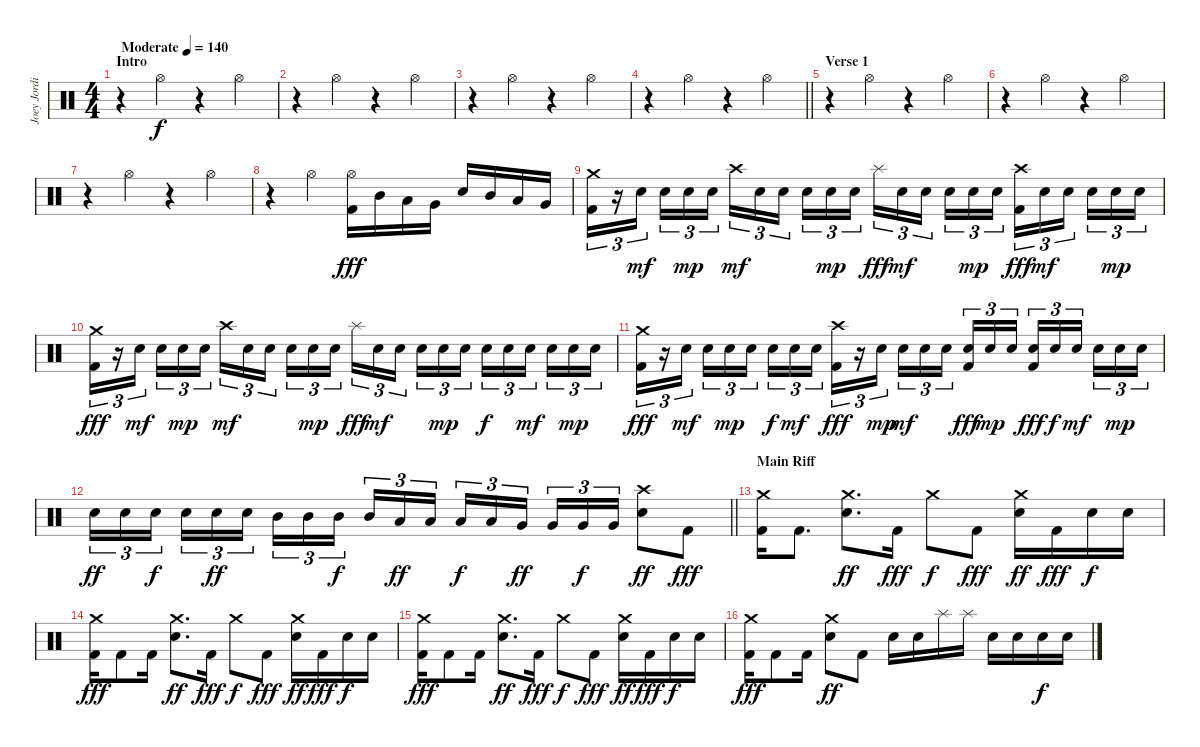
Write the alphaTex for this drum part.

\track ("Joey Jordison" "Joey Jordi") {instrument percussion}
\staff {score}
\articulation defaults
\ts (4 4)
\section ("" "Intro")
\tempo (140 "Moderate")
\clef neutral
\ks c
r.4{dy f} "Hi-Hat (open)".4 r.4 "Hi-Hat (open)".4 |
r.4 "Hi-Hat (open)".4 r.4 "Hi-Hat (open)".4 |
r.4 "Hi-Hat (open)".4 r.4 "Hi-Hat (open)".4 |
\barLineRight lightlight
r.4 "Hi-Hat (open)".4 r.4 "Hi-Hat (open)".4 |
\section ("" "Verse 1")
r.4 "Hi-Hat (open)".4 r.4 "Hi-Hat (open)".4 |
r.4 "Hi-Hat (open)".4 r.4 "Hi-Hat (open)".4 |
r.4 "Hi-Hat (open)".4 r.4 "Hi-Hat (open)".4 |
r.4 "Hi-Hat (open)".4 ("Hi-Hat (open)" "Kick (hit) 2").16{dy fff} "Mid Tom (hit)".16 "Low Tom (hit)".16 "Very Low Tom (hit)".16 "Electric Snare (hit)".16 "Mid Tom (hit)".16 "Low Tom (hit)".16 "Very Low Tom (hit)".16 |
("Crash medium (hit)" "Kick (hit) 2").16{tu (3 2)} r.16{tu (3 2)} "Electric Snare (hit)".16{tu (3 2) dy mf beam splitsecondary} "Electric Snare (hit)".16{tu (3 2)} "Electric Snare (hit)".16{tu (3 2) dy mp} "Electric Snare (hit)".16{tu (3 2)} "Crash high (hit)".16{tu (3 2) dy mf} "Electric Snare (hit)".16{tu (3 2)} "Electric Snare (hit)".16{tu (3 2) beam splitsecondary} "Electric Snare (hit)".16{tu (3 2)} "Electric Snare (hit)".16{tu (3 2) dy mp} "Electric Snare (hit)".16{tu (3 2)} "Splash (hit)".16{tu (3 2) dy fff} "Electric Snare (hit)".16{tu (3 2) dy mf} "Electric Snare (hit)".16{tu (3 2) beam splitsecondary} "Electric Snare (hit)".16{tu (3 2)} "Electric Snare (hit)".16{tu (3 2) dy mp} "Electric Snare (hit)".16{tu (3 2)} ("Crash high (hit)" "Kick (hit) 2").16{tu (3 2) dy fff} "Electric Snare (hit)".16{tu (3 2) dy mf} "Electric Snare (hit)".16{tu (3 2) beam splitsecondary} "Electric Snare (hit)".16{tu (3 2)} "Electric Snare (hit)".16{tu (3 2) dy mp} "Electric Snare (hit)".16{tu (3 2)} |
("Crash medium (hit)" "Kick (hit) 2").16{tu (3 2) dy fff} r.16{tu (3 2)} "Electric Snare (hit)".16{tu (3 2) dy mf beam splitsecondary} "Electric Snare (hit)".16{tu (3 2)} "Electric Snare (hit)".16{tu (3 2) dy mp} "Electric Snare (hit)".16{tu (3 2)} "Crash high (hit)".16{tu (3 2) dy mf} "Electric Snare (hit)".16{tu (3 2)} "Electric Snare (hit)".16{tu (3 2) beam splitsecondary} "Electric Snare (hit)".16{tu (3 2)} "Electric Snare (hit)".16{tu (3 2) dy mp} "Electric Snare (hit)".16{tu (3 2)} "Splash (hit)".16{tu (3 2) dy fff} "Electric Snare (hit)".16{tu (3 2) dy mf} "Electric Snare (hit)".16{tu (3 2) beam splitsecondary} "Electric Snare (hit)".16{tu (3 2)} "Electric Snare (hit)".16{tu (3 2) dy mp} "Electric Snare (hit)".16{tu (3 2)} "Electric Snare (hit)".16{tu (3 2) dy f} "Electric Snare (hit)".16{tu (3 2)} "Electric Snare (hit)".16{tu (3 2) dy mf beam splitsecondary} "Electric Snare (hit)".16{tu (3 2)} "Electric Snare (hit)".16{tu (3 2) dy mp} "Electric Snare (hit)".16{tu (3 2)} |
("Crash medium (hit)" "Kick (hit) 2").16{tu (3 2) dy fff} r.16{tu (3 2)} "Electric Snare (hit)".16{tu (3 2) dy mf beam splitsecondary} "Electric Snare (hit)".16{tu (3 2)} "Electric Snare (hit)".16{tu (3 2) dy mp} "Electric Snare (hit)".16{tu (3 2)} "Electric Snare (hit)".16{tu (3 2) dy f} "Electric Snare (hit)".16{tu (3 2) dy mf} "Electric Snare (hit)".16{tu (3 2) beam splitsecondary} ("Crash high (hit)" "Kick (hit) 2").16{tu (3 2) dy fff} r.16{tu (3 2)} "Electric Snare (hit)".16{tu (3 2) dy mp} "Electric Snare (hit)".16{tu (3 2) dy mf} "Electric Snare (hit)".16{tu (3 2)} "Electric Snare (hit)".16{tu (3 2) beam splitsecondary} ("Electric Snare (hit)" "Kick (hit) 2").16{tu (3 2) dy fff} "Electric Snare (hit)".16{tu (3 2) dy mp} "Electric Snare (hit)".16{tu (3 2)} ("Electric Snare (hit)" "Kick (hit) 2").16{tu (3 2) dy fff} "Electric Snare (hit)".16{tu (3 2) dy f} "Electric Snare (hit)".16{tu (3 2) dy mf beam splitsecondary} "Electric Snare (hit)".16{tu (3 2)} "Electric Snare (hit)".16{tu (3 2) dy mp} "Electric Snare (hit)".16{tu (3 2)} |
\barLineRight lightlight "Electric Snare (hit)".16{tu (3 2) dy ff} "Electric Snare (hit)".16{tu (3 2)} "Electric Snare (hit)".16{tu (3 2) dy f beam splitsecondary} "Electric Snare (hit)".16{tu (3 2)} "Electric Snare (hit)".16{tu (3 2) dy ff} "Electric Snare (hit)".16{tu (3 2)} "Mid Tom (hit)".16{tu (3 2)} "Mid Tom (hit)".16{tu (3 2)} "Mid Tom (hit)".16{tu (3 2) dy f beam splitsecondary} "Mid Tom (hit)".16{tu (3 2)} "Low Tom (hit)".16{tu (3 2) dy ff} "Low Tom (hit)".16{tu (3 2)} "Low Tom (hit)".16{tu (3 2) dy f} "Low Tom (hit)".16{tu (3 2)} "Very Low Tom (hit)".16{tu (3 2) dy ff beam splitsecondary} "Very Low Tom (hit)".16{tu (3 2)} "Very Low Tom (hit)".16{tu (3 2) dy f} "Very Low Tom (hit)".16{tu (3 2)}
("Crash high (hit)" "Electric Snare (hit)").8{dy ff} "Kick (hit) 2".8{dy fff} |
\section ("" "Main Riff")
("Crash medium (hit)" "Kick (hit) 2").16 "Kick (hit) 2".8{d} ("Crash medium (hit)" "Electric Snare (hit)").8{d dy ff} "Kick (hit) 2".16{dy fff} "Crash medium (hit)".8{dy f} "Kick (hit) 2".8{dy fff} ("Crash medium (hit)" "Electric Snare (hit)").16{dy ff} "Kick (hit) 2".16{dy fff} "Electric Snare (hit)".16{dy f} "Electric Snare (hit)".16 |
("Crash medium (hit)" "Kick (hit) 2").16{dy fff} "Kick (hit) 2".8 "Kick (hit) 2".16 ("Crash medium (hit)" "Electric Snare (hit)").8{d dy ff} "Kick (hit) 2".16{dy fff} "Crash medium (hit)".8{dy f} "Kick (hit) 2".8{dy fff} ("Crash medium (hit)" "Electric Snare (hit)").16{dy ff} "Kick (hit) 2".16{dy fff} "Electric Snare (hit)".16{dy f} "Electric Snare (hit)".16 |
("Crash medium (hit)" "Kick (hit) 2").16{dy fff} "Kick (hit) 2".8 "Kick (hit) 2".16 ("Crash medium (hit)" "Electric Snare (hit)").8{d dy ff} "Kick (hit) 2".16{dy fff} "Crash medium (hit)".8{dy f} "Kick (hit) 2".8{dy fff} ("Crash medium (hit)" "Electric Snare (hit)").16{dy ff} "Kick (hit) 2".16{dy fff} "Electric Snare (hit)".16{dy f} "Electric Snare (hit)".16 |
("Crash medium (hit)" "Kick (hit) 2").16{dy fff} "Kick (hit) 2".8 "Kick (hit) 2".16 ("Crash medium (hit)" "Electric Snare (hit)").8{dy ff} "Kick (hit) 2".8 "Electric Snare (hit)".16 "Electric Snare (hit)".16 "Splash (hit)".16 "Splash (hit)".16 "Electric Snare (hit)".16 "Electric Snare (hit)".16 "Electric Snare (hit)".16{dy f} "Electric Snare (hit)".16
